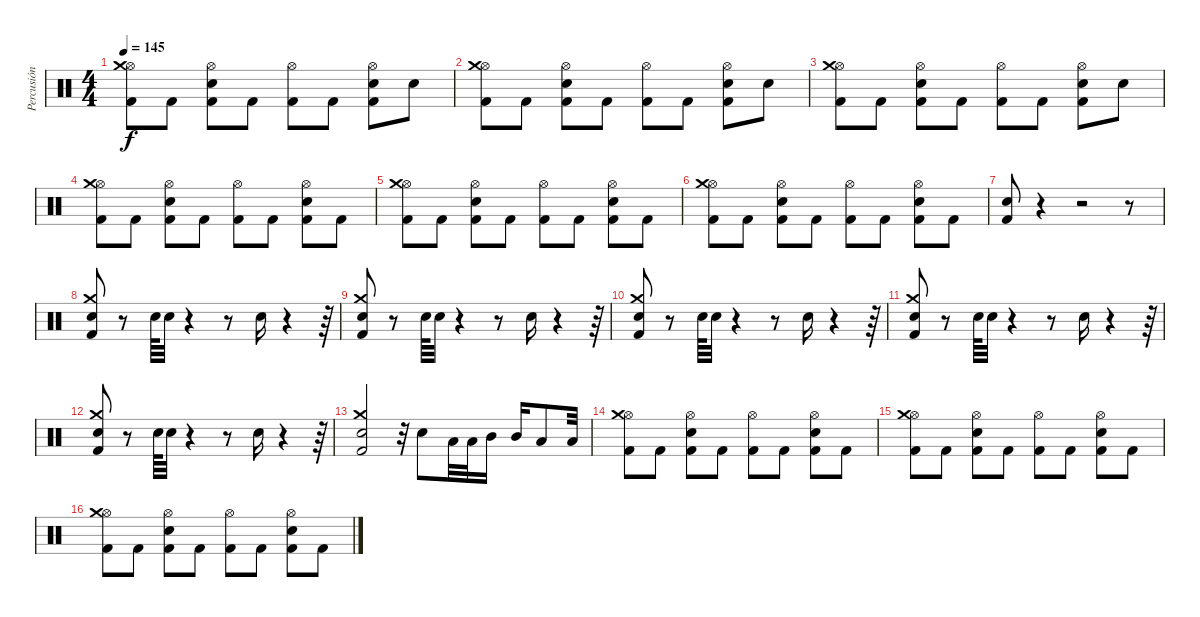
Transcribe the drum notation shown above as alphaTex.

\track ("Percusión" "Percusión") {instrument percussion}
\staff {score}
\articulation defaults
\ts (4 4)
\tempo 145
\clef neutral
\ks c
("Hi-Hat (open)" "Kick (hit) 2" "Crash medium (hit)").8{dy f} "Kick (hit) 2".8 ("Hi-Hat (open)" "Electric Snare (hit)" "Kick (hit) 2").8 "Kick (hit) 2".8 ("Hi-Hat (open)" "Kick (hit) 2").8 "Kick (hit) 2".8 ("Hi-Hat (open)" "Electric Snare (hit)" "Kick (hit) 2").8 "Electric Snare (hit)".8 |
("Hi-Hat (open)" "Kick (hit) 2" "Crash medium (hit)").8 "Kick (hit) 2".8 ("Hi-Hat (open)" "Electric Snare (hit)" "Kick (hit) 2").8 "Kick (hit) 2".8 ("Hi-Hat (open)" "Kick (hit) 2").8 "Kick (hit) 2".8 ("Hi-Hat (open)" "Electric Snare (hit)" "Kick (hit) 2").8 "Electric Snare (hit)".8 |
("Hi-Hat (open)" "Kick (hit) 2" "Crash medium (hit)").8 "Kick (hit) 2".8 ("Hi-Hat (open)" "Electric Snare (hit)" "Kick (hit) 2").8 "Kick (hit) 2".8 ("Hi-Hat (open)" "Kick (hit) 2").8 "Kick (hit) 2".8 ("Hi-Hat (open)" "Electric Snare (hit)" "Kick (hit) 2").8 "Electric Snare (hit)".8 |
("Hi-Hat (open)" "Kick (hit) 2" "Crash medium (hit)").8 "Kick (hit) 2".8 ("Hi-Hat (open)" "Electric Snare (hit)" "Kick (hit) 2").8 "Kick (hit) 2".8 ("Hi-Hat (open)" "Kick (hit) 2").8 "Kick (hit) 2".8 ("Hi-Hat (open)" "Electric Snare (hit)" "Kick (hit) 2").8 "Kick (hit) 2".8 |
("Hi-Hat (open)" "Kick (hit) 2" "Crash medium (hit)").8 "Kick (hit) 2".8 ("Hi-Hat (open)" "Electric Snare (hit)" "Kick (hit) 2").8 "Kick (hit) 2".8 ("Hi-Hat (open)" "Kick (hit) 2").8 "Kick (hit) 2".8 ("Hi-Hat (open)" "Electric Snare (hit)" "Kick (hit) 2").8 "Kick (hit) 2".8 |
("Hi-Hat (open)" "Kick (hit) 2" "Crash medium (hit)").8 "Kick (hit) 2".8 ("Hi-Hat (open)" "Electric Snare (hit)" "Kick (hit) 2").8 "Kick (hit) 2".8 ("Hi-Hat (open)" "Kick (hit) 2").8 "Kick (hit) 2".8 ("Hi-Hat (open)" "Electric Snare (hit)" "Kick (hit) 2").8 "Kick (hit) 2".8 |
("Electric Snare (hit)" "Kick (hit) 2").8 r.4 r.2 r.8 |
("Electric Snare (hit)" "Kick (hit) 2" "Crash medium (hit)").8 r.8 "Electric Snare (hit)".64 "Electric Snare (hit)".32 r.4 r.8 "Electric Snare (hit)".16 r.4 r.64 |
("Electric Snare (hit)" "Kick (hit) 2" "Crash medium (hit)").8 r.8 "Electric Snare (hit)".64 "Electric Snare (hit)".32 r.4 r.8 "Electric Snare (hit)".16 r.4 r.64 |
("Electric Snare (hit)" "Kick (hit) 2" "Crash medium (hit)").8 r.8 "Electric Snare (hit)".64 "Electric Snare (hit)".32 r.4 r.8 "Electric Snare (hit)".16 r.4 r.64 |
("Electric Snare (hit)" "Kick (hit) 2" "Crash medium (hit)").8 r.8 "Electric Snare (hit)".64 "Electric Snare (hit)".32 r.4 r.8 "Electric Snare (hit)".16 r.4 r.64 |
("Electric Snare (hit)" "Kick (hit) 2" "Crash medium (hit)").8 r.8 "Electric Snare (hit)".64 "Electric Snare (hit)".32 r.4 r.8 "Electric Snare (hit)".16 r.4 r.64 |
("Crash medium (hit)" "Electric Snare (hit)" "Kick (hit) 2").2 r.32 "Electric Snare (hit)".8 "Low Tom (hit)".32 "Low Tom (hit)".32 "Mid Tom (hit)".16 "Mid Tom (hit)".16 "Low Tom (hit)".8 "Low Tom (hit)".32 |
("Hi-Hat (open)" "Kick (hit) 2" "Crash medium (hit)").8 "Kick (hit) 2".8 ("Hi-Hat (open)" "Electric Snare (hit)" "Kick (hit) 2").8 "Kick (hit) 2".8 ("Hi-Hat (open)" "Kick (hit) 2").8 "Kick (hit) 2".8 ("Hi-Hat (open)" "Electric Snare (hit)" "Kick (hit) 2").8 "Kick (hit) 2".8 |
("Hi-Hat (open)" "Kick (hit) 2" "Crash medium (hit)").8 "Kick (hit) 2".8 ("Hi-Hat (open)" "Electric Snare (hit)" "Kick (hit) 2").8 "Kick (hit) 2".8 ("Hi-Hat (open)" "Kick (hit) 2").8 "Kick (hit) 2".8 ("Hi-Hat (open)" "Electric Snare (hit)" "Kick (hit) 2").8 "Kick (hit) 2".8 |
("Hi-Hat (open)" "Kick (hit) 2" "Crash medium (hit)").8 "Kick (hit) 2".8 ("Hi-Hat (open)" "Electric Snare (hit)" "Kick (hit) 2").8 "Kick (hit) 2".8 ("Hi-Hat (open)" "Kick (hit) 2").8 "Kick (hit) 2".8 ("Hi-Hat (open)" "Electric Snare (hit)" "Kick (hit) 2").8 "Kick (hit) 2".8
